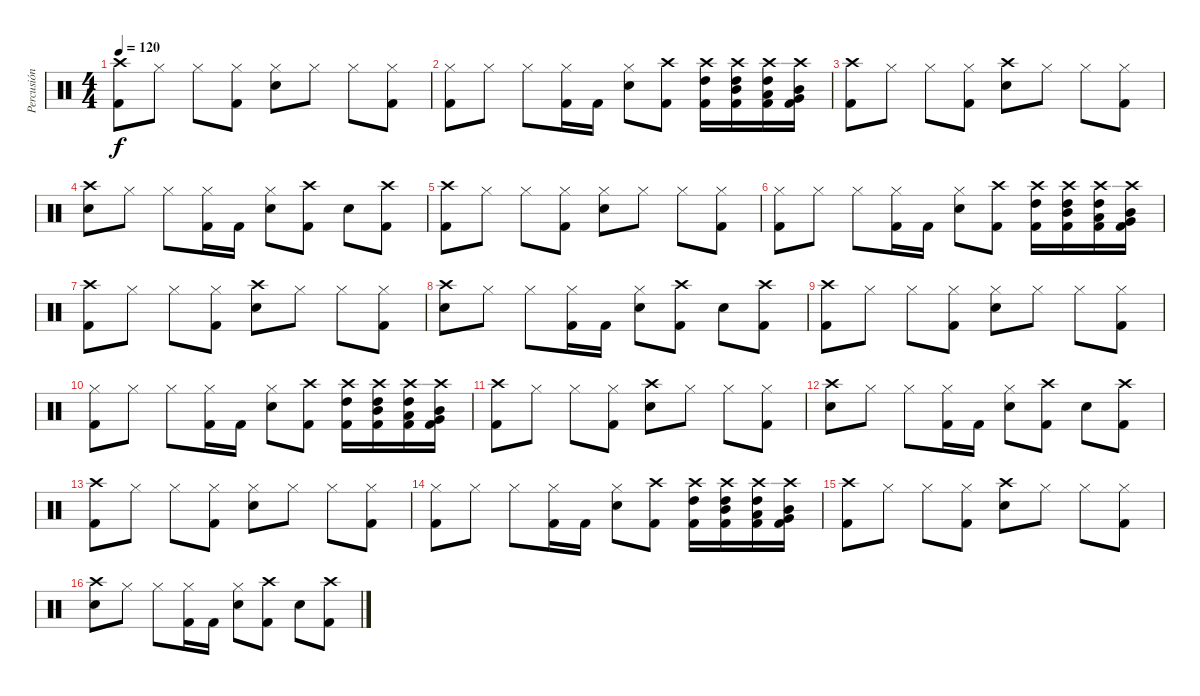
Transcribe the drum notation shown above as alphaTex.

\track ("Percusión" "Percusión") {instrument percussion}
\staff {score}
\articulation defaults
\ts (4 4)
\tempo 120
\clef neutral
\ks c
("Crash high (hit)" "Kick (hit) 2").8{dy f} "Hi-Hat (closed)".8 "Hi-Hat (closed)".8 ("Hi-Hat (closed)" "Kick (hit) 2").8 ("Hi-Hat (closed)" "Snare (hit) 2").8 "Hi-Hat (closed)".8 "Hi-Hat (closed)".8 ("Hi-Hat (closed)" "Kick (hit) 2").8 |
("Hi-Hat (closed)" "Kick (hit) 2").8 "Hi-Hat (closed)".8 "Hi-Hat (closed)".8 ("Hi-Hat (closed)" "Kick (hit) 2").16 "Kick (hit) 2".16 ("Hi-Hat (closed)" "Snare (hit) 2").8 ("Crash high (hit)" "Kick (hit) 2").8 ("Crash high (hit)" "Kick (hit) 2" "High Tom (hit)").16 ("Crash high (hit)" "Kick (hit) 2" "High Tom (hit)" "Mid Tom (hit)").16 ("Crash high (hit)" "Kick (hit) 2" "High Tom (hit)" "Low Tom (hit)").16 ("Crash high (hit)" "Kick (hit) 2" "Mid Tom (hit)" "Very Low Tom (hit)").16 |
("Crash high (hit)" "Kick (hit) 2").8 "Hi-Hat (closed)".8 "Hi-Hat (closed)".8 ("Hi-Hat (closed)" "Kick (hit) 2").8 ("Crash high (hit)" "Snare (hit) 2").8 "Hi-Hat (closed)".8 "Hi-Hat (closed)".8 ("Hi-Hat (closed)" "Kick (hit) 2").8 |
("Crash high (hit)" "Snare (hit) 2").8 "Hi-Hat (closed)".8 "Hi-Hat (closed)".8 ("Hi-Hat (closed)" "Kick (hit) 2").16 "Kick (hit) 2".16 ("Hi-Hat (closed)" "Snare (hit) 2").8 ("Crash high (hit)" "Kick (hit) 2").8 "Electric Snare (hit)".8 ("Crash high (hit)" "Kick (hit) 2").8 |
("Crash high (hit)" "Kick (hit) 2").8 "Hi-Hat (closed)".8 "Hi-Hat (closed)".8 ("Hi-Hat (closed)" "Kick (hit) 2").8 ("Hi-Hat (closed)" "Snare (hit) 2").8 "Hi-Hat (closed)".8 "Hi-Hat (closed)".8 ("Hi-Hat (closed)" "Kick (hit) 2").8 |
("Hi-Hat (closed)" "Kick (hit) 2").8 "Hi-Hat (closed)".8 "Hi-Hat (closed)".8 ("Hi-Hat (closed)" "Kick (hit) 2").16 "Kick (hit) 2".16 ("Hi-Hat (closed)" "Snare (hit) 2").8 ("Crash high (hit)" "Kick (hit) 2").8 ("Crash high (hit)" "Kick (hit) 2" "High Tom (hit)").16 ("Crash high (hit)" "Kick (hit) 2" "High Tom (hit)" "Mid Tom (hit)").16 ("Crash high (hit)" "Kick (hit) 2" "High Tom (hit)" "Low Tom (hit)").16 ("Crash high (hit)" "Kick (hit) 2" "Mid Tom (hit)" "Very Low Tom (hit)").16 |
("Crash high (hit)" "Kick (hit) 2").8 "Hi-Hat (closed)".8 "Hi-Hat (closed)".8 ("Hi-Hat (closed)" "Kick (hit) 2").8 ("Crash high (hit)" "Snare (hit) 2").8 "Hi-Hat (closed)".8 "Hi-Hat (closed)".8 ("Hi-Hat (closed)" "Kick (hit) 2").8 |
("Crash high (hit)" "Snare (hit) 2").8 "Hi-Hat (closed)".8 "Hi-Hat (closed)".8 ("Hi-Hat (closed)" "Kick (hit) 2").16 "Kick (hit) 2".16 ("Hi-Hat (closed)" "Snare (hit) 2").8 ("Crash high (hit)" "Kick (hit) 2").8 "Electric Snare (hit)".8 ("Crash high (hit)" "Kick (hit) 2").8 |
("Crash high (hit)" "Kick (hit) 2").8 "Hi-Hat (closed)".8 "Hi-Hat (closed)".8 ("Hi-Hat (closed)" "Kick (hit) 2").8 ("Hi-Hat (closed)" "Snare (hit) 2").8 "Hi-Hat (closed)".8 "Hi-Hat (closed)".8 ("Hi-Hat (closed)" "Kick (hit) 2").8 |
("Hi-Hat (closed)" "Kick (hit) 2").8 "Hi-Hat (closed)".8 "Hi-Hat (closed)".8 ("Hi-Hat (closed)" "Kick (hit) 2").16 "Kick (hit) 2".16 ("Hi-Hat (closed)" "Snare (hit) 2").8 ("Crash high (hit)" "Kick (hit) 2").8 ("Crash high (hit)" "Kick (hit) 2" "High Tom (hit)").16 ("Crash high (hit)" "Kick (hit) 2" "High Tom (hit)" "Mid Tom (hit)").16 ("Crash high (hit)" "Kick (hit) 2" "High Tom (hit)" "Low Tom (hit)").16 ("Crash high (hit)" "Kick (hit) 2" "Mid Tom (hit)" "Very Low Tom (hit)").16 |
("Crash high (hit)" "Kick (hit) 2").8 "Hi-Hat (closed)".8 "Hi-Hat (closed)".8 ("Hi-Hat (closed)" "Kick (hit) 2").8 ("Crash high (hit)" "Snare (hit) 2").8 "Hi-Hat (closed)".8 "Hi-Hat (closed)".8 ("Hi-Hat (closed)" "Kick (hit) 2").8 |
("Crash high (hit)" "Snare (hit) 2").8 "Hi-Hat (closed)".8 "Hi-Hat (closed)".8 ("Hi-Hat (closed)" "Kick (hit) 2").16 "Kick (hit) 2".16 ("Hi-Hat (closed)" "Snare (hit) 2").8 ("Crash high (hit)" "Kick (hit) 2").8 "Electric Snare (hit)".8 ("Crash high (hit)" "Kick (hit) 2").8 |
("Crash high (hit)" "Kick (hit) 2").8 "Hi-Hat (closed)".8 "Hi-Hat (closed)".8 ("Hi-Hat (closed)" "Kick (hit) 2").8 ("Hi-Hat (closed)" "Snare (hit) 2").8 "Hi-Hat (closed)".8 "Hi-Hat (closed)".8 ("Hi-Hat (closed)" "Kick (hit) 2").8 |
("Hi-Hat (closed)" "Kick (hit) 2").8 "Hi-Hat (closed)".8 "Hi-Hat (closed)".8 ("Hi-Hat (closed)" "Kick (hit) 2").16 "Kick (hit) 2".16 ("Hi-Hat (closed)" "Snare (hit) 2").8 ("Crash high (hit)" "Kick (hit) 2").8 ("Crash high (hit)" "Kick (hit) 2" "High Tom (hit)").16 ("Crash high (hit)" "Kick (hit) 2" "High Tom (hit)" "Mid Tom (hit)").16 ("Crash high (hit)" "Kick (hit) 2" "High Tom (hit)" "Low Tom (hit)").16 ("Crash high (hit)" "Kick (hit) 2" "Mid Tom (hit)" "Very Low Tom (hit)").16 |
("Crash high (hit)" "Kick (hit) 2").8 "Hi-Hat (closed)".8 "Hi-Hat (closed)".8 ("Hi-Hat (closed)" "Kick (hit) 2").8 ("Crash high (hit)" "Snare (hit) 2").8 "Hi-Hat (closed)".8 "Hi-Hat (closed)".8 ("Hi-Hat (closed)" "Kick (hit) 2").8 |
("Crash high (hit)" "Snare (hit) 2").8 "Hi-Hat (closed)".8 "Hi-Hat (closed)".8 ("Hi-Hat (closed)" "Kick (hit) 2").16 "Kick (hit) 2".16 ("Hi-Hat (closed)" "Snare (hit) 2").8 ("Crash high (hit)" "Kick (hit) 2").8 "Electric Snare (hit)".8 ("Crash high (hit)" "Kick (hit) 2").8
